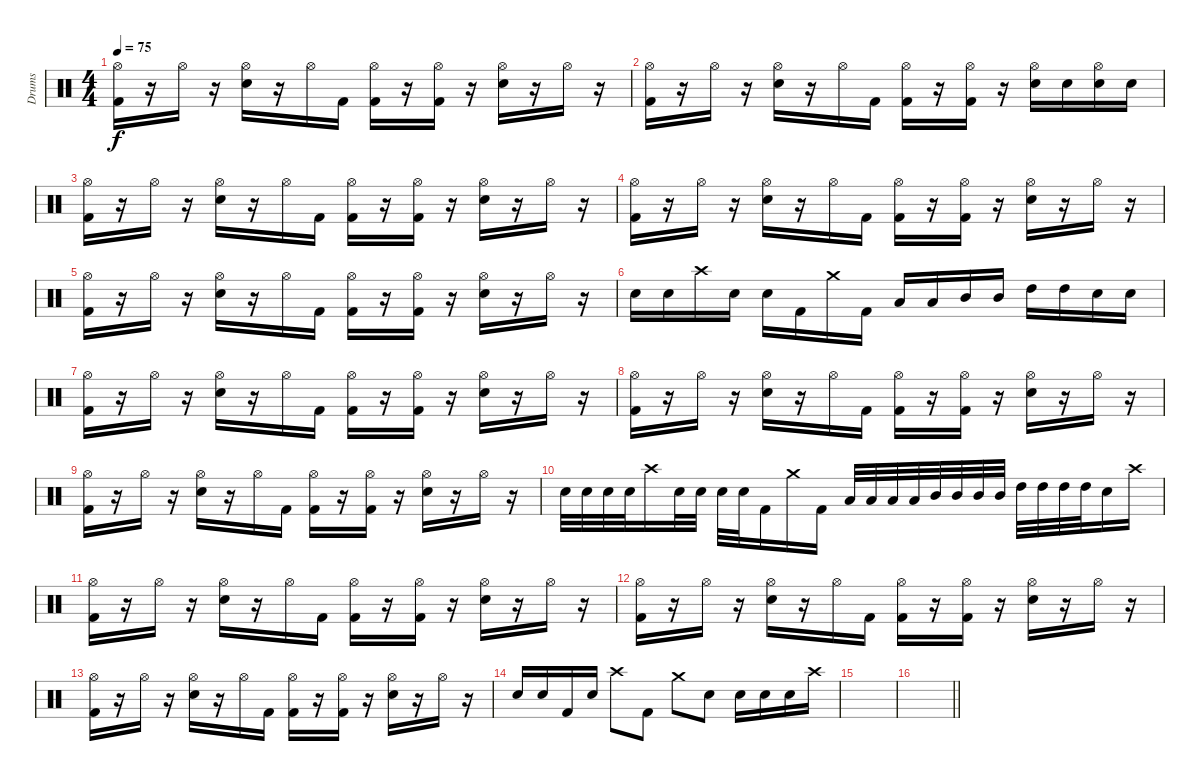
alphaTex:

\track ("Drums" "Drums") {instrument percussion}
\staff {score}
\articulation defaults
\ts (4 4)
\tempo 75
\clef neutral
\ks c
("Hi-Hat (open)" "Kick (hit) 2").16{dy f} r.16 "Hi-Hat (open)".16 r.16 ("Hi-Hat (open)" "Electric Snare (hit)").16 r.16 "Hi-Hat (open)".16 "Kick (hit) 2".16 ("Hi-Hat (open)" "Kick (hit) 2").16 r.16 ("Hi-Hat (open)" "Kick (hit) 2").16 r.16 ("Hi-Hat (open)" "Electric Snare (hit)").16 r.16 "Hi-Hat (open)".16 r.16 |
("Hi-Hat (open)" "Kick (hit) 2").16 r.16 "Hi-Hat (open)".16 r.16 ("Hi-Hat (open)" "Electric Snare (hit)").16 r.16 "Hi-Hat (open)".16 "Kick (hit) 2".16 ("Hi-Hat (open)" "Kick (hit) 2").16 r.16 ("Hi-Hat (open)" "Kick (hit) 2").16 r.16 ("Hi-Hat (open)" "Electric Snare (hit)").16 "Electric Snare (hit)".16 ("Hi-Hat (open)" "Electric Snare (hit)").16 "Electric Snare (hit)".16 |
("Hi-Hat (open)" "Kick (hit) 2").16 r.16 "Hi-Hat (open)".16 r.16 ("Hi-Hat (open)" "Electric Snare (hit)").16 r.16 "Hi-Hat (open)".16 "Kick (hit) 2".16 ("Hi-Hat (open)" "Kick (hit) 2").16 r.16 ("Hi-Hat (open)" "Kick (hit) 2").16 r.16 ("Hi-Hat (open)" "Electric Snare (hit)").16 r.16 "Hi-Hat (open)".16 r.16 |
("Hi-Hat (open)" "Kick (hit) 2").16 r.16 "Hi-Hat (open)".16 r.16 ("Hi-Hat (open)" "Electric Snare (hit)").16 r.16 "Hi-Hat (open)".16 "Kick (hit) 2".16 ("Hi-Hat (open)" "Kick (hit) 2").16 r.16 ("Hi-Hat (open)" "Kick (hit) 2").16 r.16 ("Hi-Hat (open)" "Electric Snare (hit)").16 r.16 "Hi-Hat (open)".16 r.16 |
("Hi-Hat (open)" "Kick (hit) 2").16 r.16 "Hi-Hat (open)".16 r.16 ("Hi-Hat (open)" "Electric Snare (hit)").16 r.16 "Hi-Hat (open)".16 "Kick (hit) 2".16 ("Hi-Hat (open)" "Kick (hit) 2").16 r.16 ("Hi-Hat (open)" "Kick (hit) 2").16 r.16 ("Hi-Hat (open)" "Electric Snare (hit)").16 r.16 "Hi-Hat (open)".16 r.16 |
"Electric Snare (hit)".16 "Electric Snare (hit)".16 "Crash high (hit)".16 "Electric Snare (hit)".16 "Electric Snare (hit)".16 "Kick (hit) 2".16 "Crash medium (hit)".16 "Kick (hit) 2".16 "Low Tom (hit)".16 "Low Tom (hit)".16 "Mid Tom (hit)".16 "Mid Tom (hit)".16 "High Tom (hit)".16 "High Tom (hit)".16 "Electric Snare (hit)".16 "Electric Snare (hit)".16 |
("Hi-Hat (open)" "Kick (hit) 2").16 r.16 "Hi-Hat (open)".16 r.16 ("Hi-Hat (open)" "Electric Snare (hit)").16 r.16 "Hi-Hat (open)".16 "Kick (hit) 2".16 ("Hi-Hat (open)" "Kick (hit) 2").16 r.16 ("Hi-Hat (open)" "Kick (hit) 2").16 r.16 ("Hi-Hat (open)" "Electric Snare (hit)").16 r.16 "Hi-Hat (open)".16 r.16 |
("Hi-Hat (open)" "Kick (hit) 2").16 r.16 "Hi-Hat (open)".16 r.16 ("Hi-Hat (open)" "Electric Snare (hit)").16 r.16 "Hi-Hat (open)".16 "Kick (hit) 2".16 ("Hi-Hat (open)" "Kick (hit) 2").16 r.16 ("Hi-Hat (open)" "Kick (hit) 2").16 r.16 ("Hi-Hat (open)" "Electric Snare (hit)").16 r.16 "Hi-Hat (open)".16 r.16 |
("Hi-Hat (open)" "Kick (hit) 2").16 r.16 "Hi-Hat (open)".16 r.16 ("Hi-Hat (open)" "Electric Snare (hit)").16 r.16 "Hi-Hat (open)".16 "Kick (hit) 2".16 ("Hi-Hat (open)" "Kick (hit) 2").16 r.16 ("Hi-Hat (open)" "Kick (hit) 2").16 r.16 ("Hi-Hat (open)" "Electric Snare (hit)").16 r.16 "Hi-Hat (open)".16 r.16 |
"Electric Snare (hit)".32 "Electric Snare (hit)".32 "Electric Snare (hit)".32 "Electric Snare (hit)".32 "Crash high (hit)".16 "Electric Snare (hit)".32 "Electric Snare (hit)".32 "Electric Snare (hit)".32 "Electric Snare (hit)".32 "Kick (hit) 2".16 "Crash medium (hit)".16 "Kick (hit) 2".16 "Low Tom (hit)".32 "Low Tom (hit)".32 "Low Tom (hit)".32 "Low Tom (hit)".32 "Mid Tom (hit)".32 "Mid Tom (hit)".32 "Mid Tom (hit)".32 "Mid Tom (hit)".32 "High Tom (hit)".32 "High Tom (hit)".32 "High Tom (hit)".32 "High Tom (hit)".32 "Electric Snare (hit)".16 "Crash high (hit)".16 |
("Hi-Hat (open)" "Kick (hit) 2").16 r.16 "Hi-Hat (open)".16 r.16 ("Hi-Hat (open)" "Electric Snare (hit)").16 r.16 "Hi-Hat (open)".16 "Kick (hit) 2".16 ("Hi-Hat (open)" "Kick (hit) 2").16 r.16 ("Hi-Hat (open)" "Kick (hit) 2").16 r.16 ("Hi-Hat (open)" "Electric Snare (hit)").16 r.16 "Hi-Hat (open)".16 r.16 |
("Hi-Hat (open)" "Kick (hit) 2").16 r.16 "Hi-Hat (open)".16 r.16 ("Hi-Hat (open)" "Electric Snare (hit)").16 r.16 "Hi-Hat (open)".16 "Kick (hit) 2".16 ("Hi-Hat (open)" "Kick (hit) 2").16 r.16 ("Hi-Hat (open)" "Kick (hit) 2").16 r.16 ("Hi-Hat (open)" "Electric Snare (hit)").16 r.16 "Hi-Hat (open)".16 r.16 |
("Hi-Hat (open)" "Kick (hit) 2").16 r.16 "Hi-Hat (open)".16 r.16 ("Hi-Hat (open)" "Electric Snare (hit)").16 r.16 "Hi-Hat (open)".16 "Kick (hit) 2".16 ("Hi-Hat (open)" "Kick (hit) 2").16 r.16 ("Hi-Hat (open)" "Kick (hit) 2").16 r.16 ("Hi-Hat (open)" "Electric Snare (hit)").16 r.16 "Hi-Hat (open)".16 r.16 |
"Electric Snare (hit)".16 "Electric Snare (hit)".16 "Kick (hit) 2".16 "Electric Snare (hit)".16 "Crash high (hit)".8 "Kick (hit) 2".8 "Crash medium (hit)".8 "Electric Snare (hit)".8 "Electric Snare (hit)".16 "Electric Snare (hit)".16 "Electric Snare (hit)".16 "Crash high (hit)".16 |
|
\barLineRight lightlight
